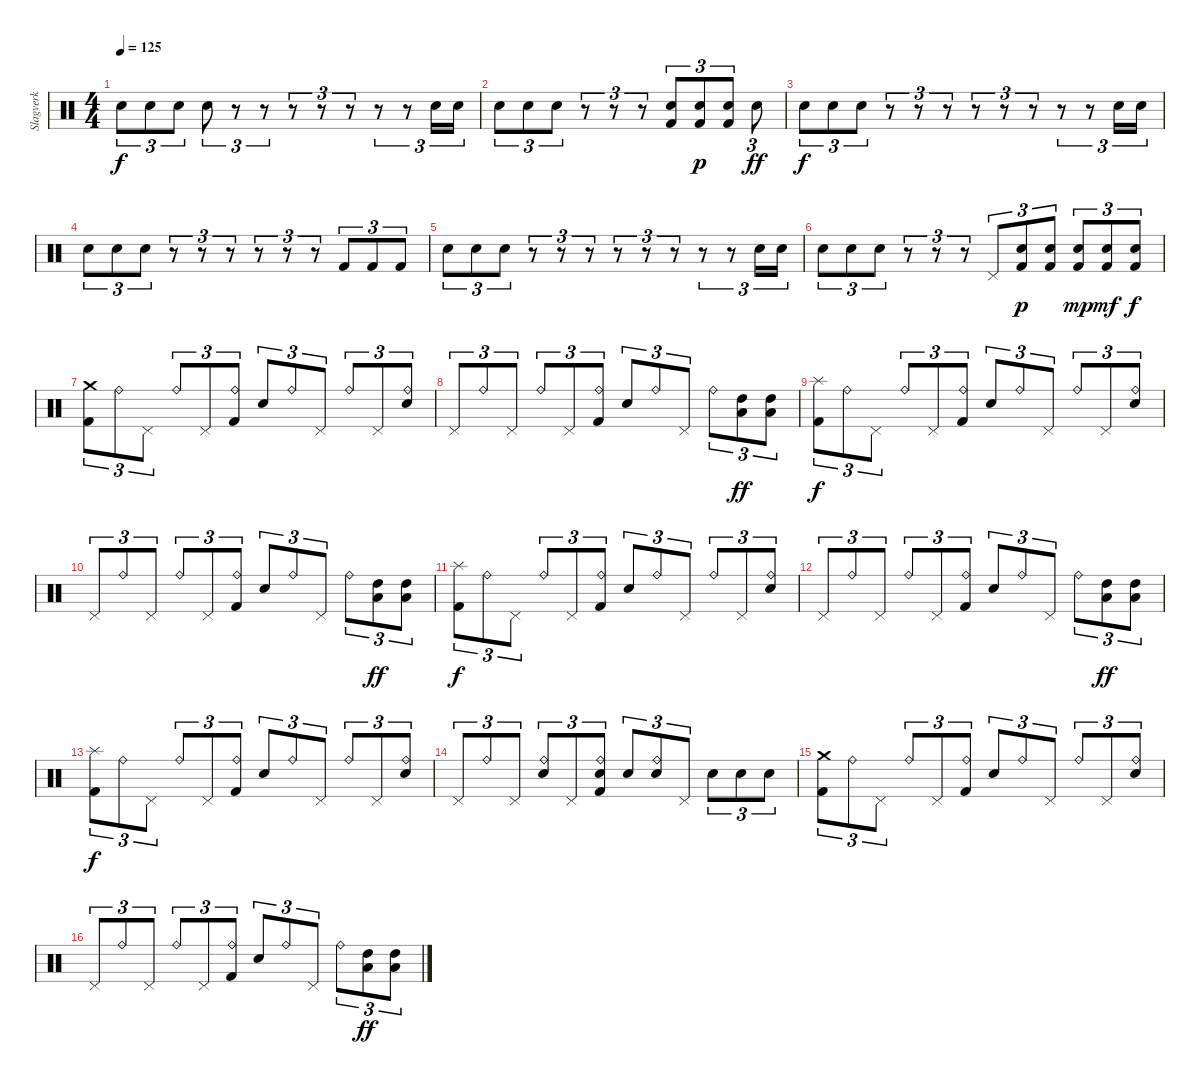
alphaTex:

\track ("Slagverk" "Slagverk") {instrument percussion}
\staff {score}
\articulation defaults
\ts (4 4)
\tempo 125
\clef neutral
\ks c "Electric Snare (hit)".8{tu (3 2) dy f} "Electric Snare (hit)".8{tu (3 2)} "Electric Snare (hit)".8{tu (3 2)} "Electric Snare (hit)".8{tu (3 2)}
r.8{tu (3 2)} r.8{tu (3 2)} r.8{tu (3 2)} r.8{tu (3 2)} r.8{tu (3 2)} r.8{tu (3 2)} r.8{tu (3 2)} "Electric Snare (hit)".16{tu (3 2)} "Electric Snare (hit)".16{tu (3 2)} |
"Electric Snare (hit)".8{tu (3 2)} "Electric Snare (hit)".8{tu (3 2)} "Electric Snare (hit)".8{tu (3 2)} r.8{tu (3 2)} r.8{tu (3 2)} r.8{tu (3 2)} ("Electric Snare (hit)" "Kick (hit) 2").8{tu (3 2)} ("Electric Snare (hit)" "Kick (hit) 2").8{tu (3 2) dy p} ("Electric Snare (hit)" "Kick (hit) 2").8{tu (3 2)} "Electric Snare (hit)".8{tu (3 2) dy ff} |
"Electric Snare (hit)".8{tu (3 2) dy f} "Electric Snare (hit)".8{tu (3 2)} "Electric Snare (hit)".8{tu (3 2)} r.8{tu (3 2)} r.8{tu (3 2)} r.8{tu (3 2)} r.8{tu (3 2)} r.8{tu (3 2)} r.8{tu (3 2)} r.8{tu (3 2)} r.8{tu (3 2)} "Electric Snare (hit)".16{tu (3 2)} "Electric Snare (hit)".16{tu (3 2)} |
"Electric Snare (hit)".8{tu (3 2)} "Electric Snare (hit)".8{tu (3 2)} "Electric Snare (hit)".8{tu (3 2)} r.8{tu (3 2)} r.8{tu (3 2)} r.8{tu (3 2)} r.8{tu (3 2)} r.8{tu (3 2)} r.8{tu (3 2)} "Kick (hit) 2".8{tu (3 2)} "Kick (hit) 2".8{tu (3 2)} "Kick (hit) 2".8{tu (3 2)} |
"Electric Snare (hit)".8{tu (3 2)} "Electric Snare (hit)".8{tu (3 2)} "Electric Snare (hit)".8{tu (3 2)} r.8{tu (3 2)} r.8{tu (3 2)} r.8{tu (3 2)} r.8{tu (3 2)} r.8{tu (3 2)} r.8{tu (3 2)} r.8{tu (3 2)} r.8{tu (3 2)} "Electric Snare (hit)".16{tu (3 2)} "Electric Snare (hit)".16{tu (3 2)} |
"Electric Snare (hit)".8{tu (3 2)} "Electric Snare (hit)".8{tu (3 2)} "Electric Snare (hit)".8{tu (3 2)} r.8{tu (3 2)} r.8{tu (3 2)} r.8{tu (3 2)} "Pedal Hi-Hat (hit)".8{tu (3 2)} ("Electric Snare (hit)" "Kick (hit) 2").8{tu (3 2) dy p} ("Electric Snare (hit)" "Kick (hit) 2").8{tu (3 2)} ("Electric Snare (hit)" "Kick (hit) 2").8{tu (3 2) dy mp} ("Electric Snare (hit)" "Kick (hit) 2").8{tu (3 2) dy mf} ("Electric Snare (hit)" "Kick (hit) 2").8{tu (3 2) dy f} |
("Crash medium (hit)" "Kick (hit) 2").8{tu (3 2)} "Ride (bell)".8{tu (3 2)} "Pedal Hi-Hat (hit)".8{tu (3 2)} "Ride (bell)".8{tu (3 2)} "Pedal Hi-Hat (hit)".8{tu (3 2)} ("Ride (bell)" "Kick (hit) 2").8{tu (3 2)} "Electric Snare (hit)".8{tu (3 2)} "Ride (bell)".8{tu (3 2)} "Pedal Hi-Hat (hit)".8{tu (3 2)} "Ride (bell)".8{tu (3 2)} "Pedal Hi-Hat (hit)".8{tu (3 2)} ("Ride (bell)" "Electric Snare (hit)").8{tu (3 2)} |
"Pedal Hi-Hat (hit)".8{tu (3 2)} "Ride (bell)".8{tu (3 2)} "Pedal Hi-Hat (hit)".8{tu (3 2)} "Ride (bell)".8{tu (3 2)} "Pedal Hi-Hat (hit)".8{tu (3 2)} ("Ride (bell)" "Kick (hit) 2").8{tu (3 2)} "Electric Snare (hit)".8{tu (3 2)} "Ride (bell)".8{tu (3 2)} "Pedal Hi-Hat (hit)".8{tu (3 2)} "Ride (bell)".8{tu (3 2)} ("High Tom (hit)" "Low Tom (hit)").8{tu (3 2) dy ff} ("High Tom (hit)" "Low Tom (hit)").8{tu (3 2)} |
("Splash (hit)" "Kick (hit) 2").8{tu (3 2) dy f} "Ride (bell)".8{tu (3 2)} "Pedal Hi-Hat (hit)".8{tu (3 2)} "Ride (bell)".8{tu (3 2)} "Pedal Hi-Hat (hit)".8{tu (3 2)} ("Ride (bell)" "Kick (hit) 2").8{tu (3 2)} "Electric Snare (hit)".8{tu (3 2)} "Ride (bell)".8{tu (3 2)} "Pedal Hi-Hat (hit)".8{tu (3 2)} "Ride (bell)".8{tu (3 2)} "Pedal Hi-Hat (hit)".8{tu (3 2)} ("Ride (bell)" "Electric Snare (hit)").8{tu (3 2)} |
"Pedal Hi-Hat (hit)".8{tu (3 2)} "Ride (bell)".8{tu (3 2)} "Pedal Hi-Hat (hit)".8{tu (3 2)} "Ride (bell)".8{tu (3 2)} "Pedal Hi-Hat (hit)".8{tu (3 2)} ("Ride (bell)" "Kick (hit) 2").8{tu (3 2)} "Electric Snare (hit)".8{tu (3 2)} "Ride (bell)".8{tu (3 2)} "Pedal Hi-Hat (hit)".8{tu (3 2)} "Ride (bell)".8{tu (3 2)} ("High Tom (hit)" "Low Tom (hit)").8{tu (3 2) dy ff} ("High Tom (hit)" "Low Tom (hit)").8{tu (3 2)} |
("Splash (hit)" "Kick (hit) 2").8{tu (3 2) dy f} "Ride (bell)".8{tu (3 2)} "Pedal Hi-Hat (hit)".8{tu (3 2)} "Ride (bell)".8{tu (3 2)} "Pedal Hi-Hat (hit)".8{tu (3 2)} ("Ride (bell)" "Kick (hit) 2").8{tu (3 2)} "Electric Snare (hit)".8{tu (3 2)} "Ride (bell)".8{tu (3 2)} "Pedal Hi-Hat (hit)".8{tu (3 2)} "Ride (bell)".8{tu (3 2)} "Pedal Hi-Hat (hit)".8{tu (3 2)} ("Ride (bell)" "Electric Snare (hit)").8{tu (3 2)} |
"Pedal Hi-Hat (hit)".8{tu (3 2)} "Ride (bell)".8{tu (3 2)} "Pedal Hi-Hat (hit)".8{tu (3 2)} "Ride (bell)".8{tu (3 2)} "Pedal Hi-Hat (hit)".8{tu (3 2)} ("Ride (bell)" "Kick (hit) 2").8{tu (3 2)} "Electric Snare (hit)".8{tu (3 2)} "Ride (bell)".8{tu (3 2)} "Pedal Hi-Hat (hit)".8{tu (3 2)} "Ride (bell)".8{tu (3 2)} ("High Tom (hit)" "Low Tom (hit)").8{tu (3 2) dy ff} ("High Tom (hit)" "Low Tom (hit)").8{tu (3 2)} |
("Splash (hit)" "Kick (hit) 2").8{tu (3 2) dy f} "Ride (bell)".8{tu (3 2)} "Pedal Hi-Hat (hit)".8{tu (3 2)} "Ride (bell)".8{tu (3 2)} "Pedal Hi-Hat (hit)".8{tu (3 2)} ("Ride (bell)" "Kick (hit) 2").8{tu (3 2)} "Electric Snare (hit)".8{tu (3 2)} "Ride (bell)".8{tu (3 2)} "Pedal Hi-Hat (hit)".8{tu (3 2)} "Ride (bell)".8{tu (3 2)} "Pedal Hi-Hat (hit)".8{tu (3 2)} ("Ride (bell)" "Electric Snare (hit)").8{tu (3 2)} |
"Pedal Hi-Hat (hit)".8{tu (3 2)} "Ride (bell)".8{tu (3 2)} "Pedal Hi-Hat (hit)".8{tu (3 2)} ("Ride (bell)" "Electric Snare (hit)").8{tu (3 2)} "Pedal Hi-Hat (hit)".8{tu (3 2)} ("Ride (bell)" "Electric Snare (hit)" "Kick (hit) 2").8{tu (3 2)} "Electric Snare (hit)".8{tu (3 2)} ("Ride (bell)" "Electric Snare (hit)").8{tu (3 2)} "Pedal Hi-Hat (hit)".8{tu (3 2)} "Electric Snare (hit)".8{tu (3 2)} "Electric Snare (hit)".8{tu (3 2)} "Electric Snare (hit)".8{tu (3 2)} |
("Crash medium (hit)" "Kick (hit) 2").8{tu (3 2)} "Ride (bell)".8{tu (3 2)} "Pedal Hi-Hat (hit)".8{tu (3 2)} "Ride (bell)".8{tu (3 2)} "Pedal Hi-Hat (hit)".8{tu (3 2)} ("Ride (bell)" "Kick (hit) 2").8{tu (3 2)} "Electric Snare (hit)".8{tu (3 2)} "Ride (bell)".8{tu (3 2)} "Pedal Hi-Hat (hit)".8{tu (3 2)} "Ride (bell)".8{tu (3 2)} "Pedal Hi-Hat (hit)".8{tu (3 2)} ("Ride (bell)" "Electric Snare (hit)").8{tu (3 2)} |
"Pedal Hi-Hat (hit)".8{tu (3 2)} "Ride (bell)".8{tu (3 2)} "Pedal Hi-Hat (hit)".8{tu (3 2)} "Ride (bell)".8{tu (3 2)} "Pedal Hi-Hat (hit)".8{tu (3 2)} ("Ride (bell)" "Kick (hit) 2").8{tu (3 2)} "Electric Snare (hit)".8{tu (3 2)} "Ride (bell)".8{tu (3 2)} "Pedal Hi-Hat (hit)".8{tu (3 2)} "Ride (bell)".8{tu (3 2)} ("High Tom (hit)" "Low Tom (hit)").8{tu (3 2) dy ff} ("High Tom (hit)" "Low Tom (hit)").8{tu (3 2)}
